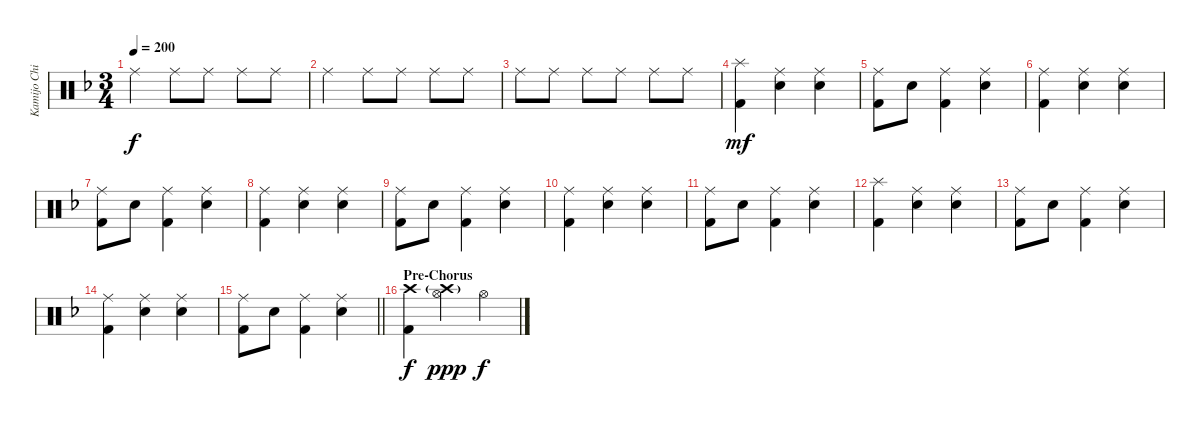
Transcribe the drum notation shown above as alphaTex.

\track ("Kamijo Chihiro" "Kamijo Chi") {instrument percussion}
\staff {score}
\articulation defaults
\ts (3 4)
\tempo 200
\clef neutral
\ks dminor "Ride (middle)".4{dy f} "Ride (middle)".8 "Ride (middle)".8 "Ride (middle)".8 "Ride (middle)".8
|
"Ride (middle)".4{volume 13} "Ride (middle)".8 "Ride (middle)".8 "Ride (middle)".8 "Ride (middle)".8 |
"Ride (middle)".8 "Ride (middle)".8 "Ride (middle)".8 "Ride (middle)".8 "Ride (middle)".8 "Ride (middle)".8 |
("Splash (hit)" "Kick (hit) 2").4{dy mf volume 11} ("Ride (middle)" "Snare (hit) 2").4 ("Ride (middle)" "Snare (hit) 2").4 |
("Ride (middle)" "Kick (hit) 2").8 "Snare (hit) 2".8 ("Ride (middle)" "Kick (hit) 2").4 ("Ride (middle)" "Snare (hit) 2").4 |
("Ride (middle)" "Kick (hit) 2").4 ("Ride (middle)" "Snare (hit) 2").4 ("Ride (middle)" "Snare (hit) 2").4 |
("Ride (middle)" "Kick (hit) 2").8 "Snare (hit) 2".8 ("Ride (middle)" "Kick (hit) 2").4 ("Ride (middle)" "Snare (hit) 2").4 |
("Ride (middle)" "Kick (hit) 2").4 ("Ride (middle)" "Snare (hit) 2").4 ("Ride (middle)" "Snare (hit) 2").4 |
("Ride (middle)" "Kick (hit) 2").8 "Snare (hit) 2".8 ("Ride (middle)" "Kick (hit) 2").4 ("Ride (middle)" "Snare (hit) 2").4 |
("Ride (middle)" "Kick (hit) 2").4 ("Ride (middle)" "Snare (hit) 2").4 ("Ride (middle)" "Snare (hit) 2").4 |
("Ride (middle)" "Kick (hit) 2").8 "Snare (hit) 2".8 ("Ride (middle)" "Kick (hit) 2").4 ("Ride (middle)" "Snare (hit) 2").4 |
("Splash (hit)" "Kick (hit) 2").4 ("Ride (middle)" "Snare (hit) 2").4 ("Ride (middle)" "Snare (hit) 2").4 |
("Ride (middle)" "Kick (hit) 2").8 "Snare (hit) 2".8 ("Ride (middle)" "Kick (hit) 2").4 ("Ride (middle)" "Snare (hit) 2").4 |
("Ride (middle)" "Kick (hit) 2").4 ("Ride (middle)" "Snare (hit) 2").4 ("Ride (middle)" "Snare (hit) 2").4 |
\barLineRight lightlight
("Ride (middle)" "Kick (hit) 2").8 "Snare (hit) 2".8 ("Ride (middle)" "Kick (hit) 2").4 ("Ride (middle)" "Snare (hit) 2").4 |
\section ("" "Pre-Chorus")
("Crash high (hit)" "Kick (hit) 2").4{dy f volume 16} ("Crash high (hit)"{g} "Hi-Hat (open)").4{dy ppp} "Hi-Hat (open)".4{dy f}
